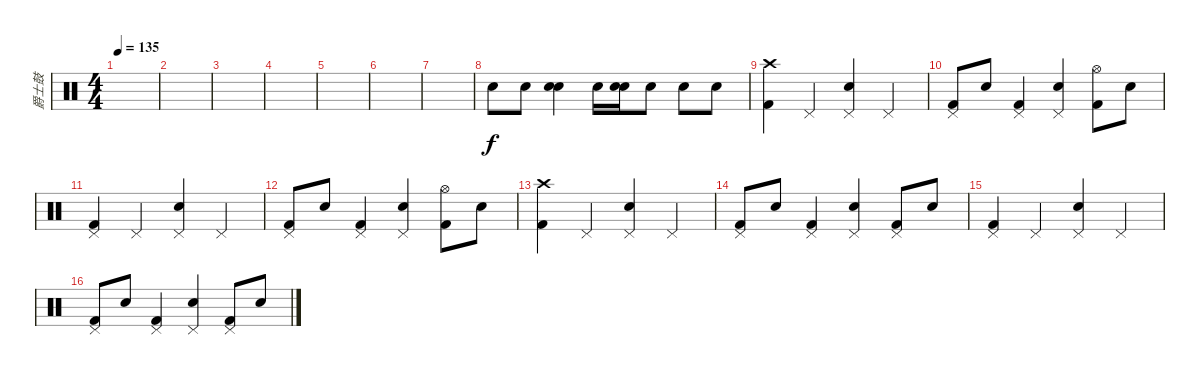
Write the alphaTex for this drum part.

\track ("爵士鼓" "爵士鼓") {instrument percussion}
\staff {score}
\articulation defaults
\ts (4 4)
\tempo 135
\clef neutral
\ks c
|
|
|
|
|
|
|
"Snare (hit) 2".8 "Snare (hit) 2".8 ("Electric Snare (hit)" "Snare (hit) 2").4 "Snare (hit) 2".16 ("Electric Snare (hit)" "Snare (hit) 2").16 "Electric Snare (hit)".8 "Electric Snare (hit)".8 "Electric Snare (hit)".8 |
("Crash high (hit)" "Kick (hit) 2").4 "Pedal Hi-Hat (hit)".4 ("Pedal Hi-Hat (hit)" "Snare (hit) 2").4 "Pedal Hi-Hat (hit)".4 |
("Pedal Hi-Hat (hit)" "Kick (hit) 2").8 "Snare (hit) 2".8 ("Pedal Hi-Hat (hit)" "Kick (hit) 2").4 ("Pedal Hi-Hat (hit)" "Snare (hit) 2").4 ("Hi-Hat (open)" "Kick (hit) 2").8 "Snare (hit) 2".8 |
("Pedal Hi-Hat (hit)" "Kick (hit) 2").4 "Pedal Hi-Hat (hit)".4 ("Pedal Hi-Hat (hit)" "Snare (hit) 2").4 "Pedal Hi-Hat (hit)".4 |
("Pedal Hi-Hat (hit)" "Kick (hit) 2").8 "Snare (hit) 2".8 ("Pedal Hi-Hat (hit)" "Kick (hit) 2").4 ("Pedal Hi-Hat (hit)" "Snare (hit) 2").4 ("Hi-Hat (open)" "Kick (hit) 2").8 "Snare (hit) 2".8 |
("Crash high (hit)" "Kick (hit) 2").4 "Pedal Hi-Hat (hit)".4 ("Pedal Hi-Hat (hit)" "Snare (hit) 2").4 "Pedal Hi-Hat (hit)".4 |
("Pedal Hi-Hat (hit)" "Kick (hit) 2").8 "Snare (hit) 2".8 ("Pedal Hi-Hat (hit)" "Kick (hit) 2").4 ("Pedal Hi-Hat (hit)" "Snare (hit) 2").4 ("Pedal Hi-Hat (hit)" "Kick (hit) 2").8 "Snare (hit) 2".8 |
("Pedal Hi-Hat (hit)" "Kick (hit) 2").4 "Pedal Hi-Hat (hit)".4 ("Pedal Hi-Hat (hit)" "Snare (hit) 2").4 "Pedal Hi-Hat (hit)".4 |
("Pedal Hi-Hat (hit)" "Kick (hit) 2").8 "Snare (hit) 2".8 ("Pedal Hi-Hat (hit)" "Kick (hit) 2").4 ("Pedal Hi-Hat (hit)" "Snare (hit) 2").4 ("Pedal Hi-Hat (hit)" "Kick (hit) 2").8 "Snare (hit) 2".8
